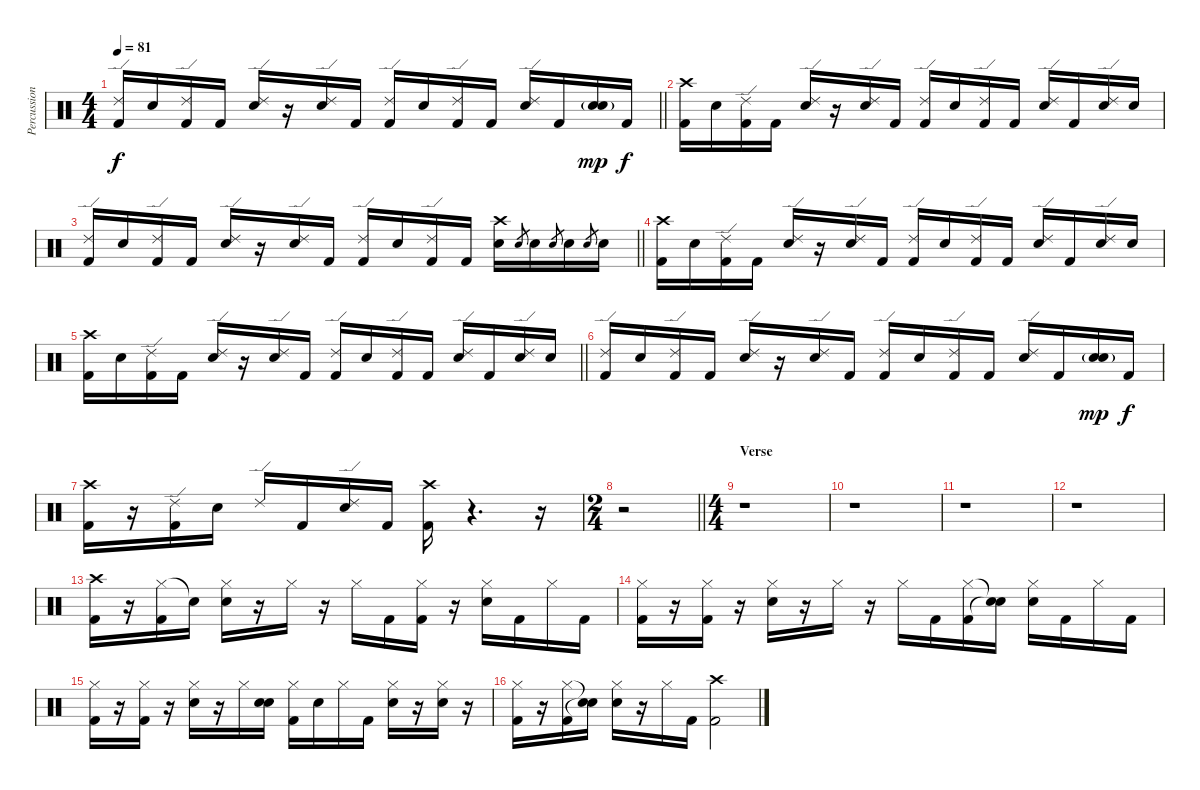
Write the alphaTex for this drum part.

\track ("Percussion" "Percussion") {instrument percussion}
\staff {score}
\articulation defaults
\ts (4 4)
\tempo 81
\clef neutral
\barLineRight lightlight
\ks c
("Ride (edge) 2" "Kick (hit) 2").16{dy f} "Snare (hit) 2".16 ("Ride (edge) 2" "Kick (hit) 2").16 "Kick (hit) 2".16 ("Ride (edge) 2" "Snare (hit) 2").16 r.16 ("Ride (edge) 2" "Snare (hit) 2").16 "Kick (hit) 2".16 ("Ride (edge) 2" "Kick (hit) 2").16 "Snare (hit) 2".16 ("Ride (edge) 2" "Kick (hit) 2").16 "Kick (hit) 2".16 ("Ride (edge) 2" "Snare (hit) 2").16 "Kick (hit) 2".16 ("Snare (hit) 2"{g} "Snare (hit) 2").16{dy mp} "Kick (hit) 2".16{dy f} |
("Crash high (hit)" "Kick (hit) 2").16 "Snare (hit) 2".16 ("Ride (edge) 2" "Kick (hit) 2").16 "Kick (hit) 2".16 ("Ride (edge) 2" "Snare (hit) 2").16 r.16 ("Ride (edge) 2" "Snare (hit) 2").16 "Kick (hit) 2".16 ("Ride (edge) 2" "Kick (hit) 2").16 "Snare (hit) 2".16 ("Ride (edge) 2" "Kick (hit) 2").16 "Kick (hit) 2".16 ("Ride (edge) 2" "Snare (hit) 2").16 "Kick (hit) 2".16 ("Ride (edge) 2" "Snare (hit) 2").16 "Snare (hit) 2".16 |
\barLineRight lightlight
("Ride (edge) 2" "Kick (hit) 2").16 "Snare (hit) 2".16 ("Ride (edge) 2" "Kick (hit) 2").16 "Kick (hit) 2".16 ("Ride (edge) 2" "Snare (hit) 2").16 r.16 ("Ride (edge) 2" "Snare (hit) 2").16 "Kick (hit) 2".16 ("Ride (edge) 2" "Kick (hit) 2").16 "Snare (hit) 2".16 ("Ride (edge) 2" "Kick (hit) 2").16 "Kick (hit) 2".16 ("Crash high (hit)" "Snare (hit) 2").16 "Snare (hit) 2".8{gr} "Snare (hit) 2".16 "Snare (hit) 2".8{gr} "Snare (hit) 2".16 "Snare (hit) 2".8{gr} "Snare (hit) 2".16 |
("Crash high (hit)" "Kick (hit) 2").16 "Snare (hit) 2".16 ("Ride (edge) 2" "Kick (hit) 2").16 "Kick (hit) 2".16 ("Ride (edge) 2" "Snare (hit) 2").16 r.16 ("Ride (edge) 2" "Snare (hit) 2").16 "Kick (hit) 2".16 ("Ride (edge) 2" "Kick (hit) 2").16 "Snare (hit) 2".16 ("Ride (edge) 2" "Kick (hit) 2").16 "Kick (hit) 2".16 ("Ride (edge) 2" "Snare (hit) 2").16 "Kick (hit) 2".16 ("Ride (edge) 2" "Snare (hit) 2").16 "Snare (hit) 2".16 |
\barLineRight lightlight
("Crash high (hit)" "Kick (hit) 2").16 "Snare (hit) 2".16 ("Ride (edge) 2" "Kick (hit) 2").16 "Kick (hit) 2".16 ("Ride (edge) 2" "Snare (hit) 2").16 r.16 ("Ride (edge) 2" "Snare (hit) 2").16 "Kick (hit) 2".16 ("Ride (edge) 2" "Kick (hit) 2").16 "Snare (hit) 2".16 ("Ride (edge) 2" "Kick (hit) 2").16 "Kick (hit) 2".16 ("Ride (edge) 2" "Snare (hit) 2").16 "Kick (hit) 2".16 ("Ride (edge) 2" "Snare (hit) 2").16 "Snare (hit) 2".16 |
("Ride (edge) 2" "Kick (hit) 2").16 "Snare (hit) 2".16 ("Ride (edge) 2" "Kick (hit) 2").16 "Kick (hit) 2".16 ("Ride (edge) 2" "Snare (hit) 2").16 r.16 ("Ride (edge) 2" "Snare (hit) 2").16 "Kick (hit) 2".16 ("Ride (edge) 2" "Kick (hit) 2").16 "Snare (hit) 2".16 ("Ride (edge) 2" "Kick (hit) 2").16 "Kick (hit) 2".16 ("Ride (edge) 2" "Snare (hit) 2").16 "Kick (hit) 2".16 ("Snare (hit) 2"{g} "Snare (hit) 2").16{dy mp} "Kick (hit) 2".16{dy f} |
("Crash high (hit)" "Kick (hit) 2").16 r.16 ("Ride (edge) 2" "Kick (hit) 2").16 "Snare (hit) 2".16 "Ride (edge) 2".16 "Kick (hit) 2".16 ("Ride (edge) 2" "Snare (hit) 2").16 "Kick (hit) 2".16 ("Crash high (hit)" "Kick (hit) 2").16 r.4{d} r.16 |
\ts (2 4)
\barLineRight lightlight
r.2 |
\ts (4 4)
\section ("" "Verse")
r.1 |
r.1 |
r.1 |
r.1 |
("Crash high (hit)" "Kick (hit) 2").16 r.16 ("Hi-Hat (closed)" "Kick (hit) 2").16 "Snare (hit)"{t}.16 ("Hi-Hat (closed)" "Snare (hit) 2").16 r.16 "Hi-Hat (closed)".16 r.16 "Hi-Hat (closed)".16 "Kick (hit) 2".16 ("Hi-Hat (closed)" "Kick (hit) 2").16 r.16 ("Hi-Hat (closed)" "Snare (hit) 2").16 "Kick (hit) 2".16 "Hi-Hat (closed)".16 "Kick (hit) 2".16 |
("Hi-Hat (closed)" "Kick (hit) 2").16 r.16 ("Hi-Hat (closed)" "Kick (hit) 2").16 r.16 ("Hi-Hat (closed)" "Snare (hit) 2").16 r.16 "Hi-Hat (closed)".16 r.16 "Hi-Hat (closed)".16 "Kick (hit) 2".16 ("Hi-Hat (closed)" "Kick (hit) 2").16 ("Snare (hit)"{t} "Snare (hit)"{t}).16 ("Hi-Hat (closed)" "Snare (hit) 2").16 "Kick (hit) 2".16 "Hi-Hat (closed)".16 "Kick (hit) 2".16 |
("Hi-Hat (closed)" "Kick (hit) 2").16 r.16 ("Hi-Hat (closed)" "Kick (hit) 2").16 r.16 ("Hi-Hat (closed)" "Snare (hit) 2").16 r.16 "Hi-Hat (closed)".16 ("Snare (hit) 2" "Snare (hit) 2").16 ("Hi-Hat (closed)" "Kick (hit) 2").16 "Snare (hit) 2".16 "Hi-Hat (closed)".16 "Kick (hit) 2".16 ("Hi-Hat (closed)" "Snare (hit) 2").16 r.16 ("Hi-Hat (closed)" "Snare (hit) 2").16 r.16 |
("Hi-Hat (closed)" "Kick (hit) 2").16 r.16 ("Hi-Hat (closed)" "Kick (hit) 2").16 ("Snare (hit)"{t} "Snare (hit)"{t}).16 ("Hi-Hat (closed)" "Snare (hit) 2").16 r.16 "Hi-Hat (closed)".16 "Kick (hit) 2".16 ("Crash high (hit)" "Kick (hit) 2").2
